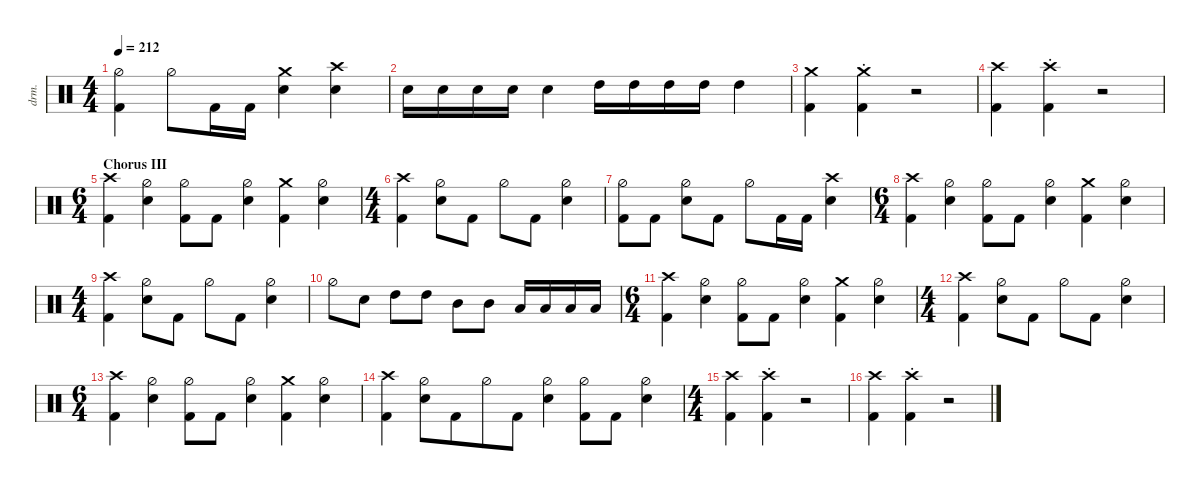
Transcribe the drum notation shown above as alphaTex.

\defaultSystemsLayout 4
\hideDynamics
\bracketExtendMode nobrackets
\track ("Drums" "drm.") {defaultSystemsLayout 4 multiBarRest instrument percussion}
\staff
\articulation defaults
\ts (4 4)
\tempo 212
\clef neutral
\ks c
("Hi-Hat (half)" "Kick (hit) 2").4{dy f} "Hi-Hat (half)".8 "Kick (hit) 2".16 "Kick (hit) 2".16 ("Snare (hit) 2" "Crash medium (hit)").4 ("Snare (hit) 2" "Crash high (hit)").4 |
"Snare (hit) 2".16 "Snare (hit) 2".16{dy mf} "Snare (hit) 2".16 "Snare (hit) 2".16 "Snare (hit) 2".4{dy f} "High Tom (hit)".16{dy ff} "High Tom (hit)".16{dy f} "High Tom (hit)".16 "High Tom (hit)".16 "High Tom (hit)".4{dy ff} |
("Kick (hit) 2" "Crash medium (hit)").4 ("Kick (hit) 2" "Crash medium (hit)"{st}).4 r.2 |
("Kick (hit) 2" "Crash high (hit)").4 ("Kick (hit) 2" "Crash high (hit)"{st}).4 r.2 |
\ts (6 4)
\beaming (8 6 6)
\section ("" "Chorus III")
("Crash high (hit)" "Kick (hit) 2").4{dy f} ("Hi-Hat (half)" "Snare (hit) 2").4 ("Hi-Hat (half)" "Kick (hit) 2").8 "Kick (hit) 2".8 ("Hi-Hat (half)" "Snare (hit) 2").4 ("Kick (hit) 2" "Crash medium (hit)").4 ("Hi-Hat (half)" "Snare (hit) 2").4 |
\ts (4 4)
\beaming (8 2 2 2 2)
("Crash high (hit)" "Kick (hit) 2").4 ("Hi-Hat (half)" "Snare (hit) 2").8 "Kick (hit) 2".8 "Hi-Hat (half)".8 "Kick (hit) 2".8 ("Hi-Hat (half)" "Snare (hit) 2").4 |
("Hi-Hat (half)" "Kick (hit) 2").8 "Kick (hit) 2".8 ("Hi-Hat (half)" "Snare (hit) 2").8 "Kick (hit) 2".8 "Hi-Hat (half)".8 "Kick (hit) 2".16 "Kick (hit) 2".16 ("Snare (hit) 2" "Crash high (hit)").4 |
\ts (6 4)
\beaming (8 6 6)
("Crash high (hit)" "Kick (hit) 2").4 ("Hi-Hat (half)" "Snare (hit) 2").4 ("Hi-Hat (half)" "Kick (hit) 2").8 "Kick (hit) 2".8 ("Hi-Hat (half)" "Snare (hit) 2").4 ("Kick (hit) 2" "Crash medium (hit)").4 ("Hi-Hat (half)" "Snare (hit) 2").4 |
\ts (4 4)
\beaming (8 2 2 2 2)
("Crash high (hit)" "Kick (hit) 2").4 ("Hi-Hat (half)" "Snare (hit) 2").8 "Kick (hit) 2".8 "Hi-Hat (half)".8 "Kick (hit) 2".8 ("Hi-Hat (half)" "Snare (hit) 2").4 |
"Hi-Hat (half)".8 "Snare (hit) 2".8 "High Tom (hit)".8{dy ff} "High Tom (hit)".8 "Mid Tom (hit)".8 "Mid Tom (hit)".8 "Low Tom (hit)".16 "Low Tom (hit)".16 "Low Tom (hit)".16 "Low Tom (hit)".16 |
\ts (6 4)
\beaming (8 6 6)
("Crash high (hit)" "Kick (hit) 2").4{dy f} ("Hi-Hat (half)" "Snare (hit) 2").4 ("Hi-Hat (half)" "Kick (hit) 2").8 "Kick (hit) 2".8 ("Hi-Hat (half)" "Snare (hit) 2").4 ("Kick (hit) 2" "Crash medium (hit)").4 ("Hi-Hat (half)" "Snare (hit) 2").4 |
\ts (4 4)
\beaming (8 2 2 2 2)
("Crash high (hit)" "Kick (hit) 2").4 ("Hi-Hat (half)" "Snare (hit) 2").8 "Kick (hit) 2".8 "Hi-Hat (half)".8 "Kick (hit) 2".8 ("Hi-Hat (half)" "Snare (hit) 2").4 |
\ts (6 4)
\beaming (8 6 6)
("Crash high (hit)" "Kick (hit) 2").4 ("Hi-Hat (half)" "Snare (hit) 2").4 ("Hi-Hat (half)" "Kick (hit) 2").8 "Kick (hit) 2".8 ("Hi-Hat (half)" "Snare (hit) 2").4 ("Kick (hit) 2" "Crash medium (hit)").4 ("Hi-Hat (half)" "Snare (hit) 2").4 |
("Crash high (hit)" "Kick (hit) 2").4 ("Hi-Hat (half)" "Snare (hit) 2").8 "Kick (hit) 2".8 "Hi-Hat (half)".8 "Kick (hit) 2".8 ("Hi-Hat (half)" "Snare (hit) 2").4 ("Hi-Hat (half)" "Kick (hit) 2").8 "Kick (hit) 2".8 ("Hi-Hat (half)" "Snare (hit) 2").4 |
\ts (4 4)
\beaming (8 2 2 2 2)
("Kick (hit) 2" "Crash high (hit)").4 ("Kick (hit) 2" "Crash high (hit)"{st}).4 r.2 |
("Kick (hit) 2" "Crash high (hit)").4 ("Kick (hit) 2" "Crash high (hit)"{st}).4 r.2
